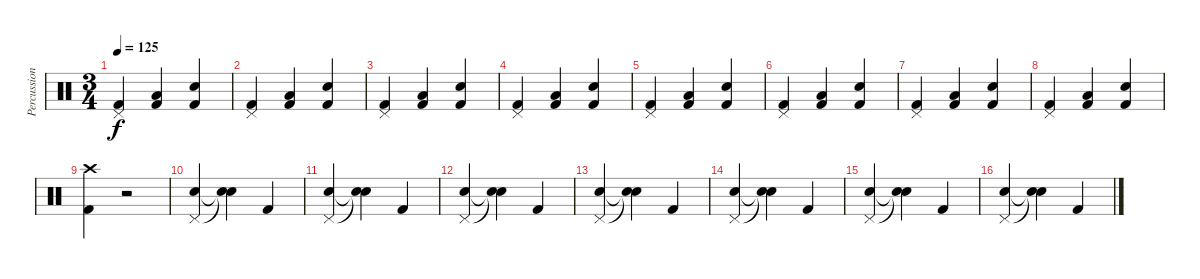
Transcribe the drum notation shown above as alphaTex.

\track ("Percussion" "Percussion") {instrument percussion}
\staff {score}
\articulation defaults
\ts (3 4)
\tempo 125
\clef neutral
\ks c
("Pedal Hi-Hat (hit)" "Kick (hit) 2").4{dy f} ("Low Tom (hit)" "Kick (hit) 2").4 ("Snare (hit) 2" "Kick (hit) 2").4 |
("Pedal Hi-Hat (hit)" "Kick (hit) 2").4 ("Low Tom (hit)" "Kick (hit) 2").4 ("Snare (hit) 2" "Kick (hit) 2").4 |
("Pedal Hi-Hat (hit)" "Kick (hit) 2").4 ("Low Tom (hit)" "Kick (hit) 2").4 ("Snare (hit) 2" "Kick (hit) 2").4 |
("Pedal Hi-Hat (hit)" "Kick (hit) 2").4 ("Low Tom (hit)" "Kick (hit) 2").4 ("Snare (hit) 2" "Kick (hit) 2").4 |
("Pedal Hi-Hat (hit)" "Kick (hit) 2").4 ("Low Tom (hit)" "Kick (hit) 2").4 ("Snare (hit) 2" "Kick (hit) 2").4 |
("Pedal Hi-Hat (hit)" "Kick (hit) 2").4 ("Low Tom (hit)" "Kick (hit) 2").4 ("Snare (hit) 2" "Kick (hit) 2").4 |
("Pedal Hi-Hat (hit)" "Kick (hit) 2").4 ("Low Tom (hit)" "Kick (hit) 2").4 ("Snare (hit) 2" "Kick (hit) 2").4 |
("Pedal Hi-Hat (hit)" "Kick (hit) 2").4 ("Low Tom (hit)" "Kick (hit) 2").4 ("Snare (hit) 2" "Kick (hit) 2").4 |
("Crash high (hit)" "Kick (hit) 2").4 r.2 |
("Pedal Hi-Hat (hit)" "Snare (hit) 2").4 ("Snare (hit)"{t} "Snare (hit)"{t}).4 "Kick (hit) 2".4 |
("Pedal Hi-Hat (hit)" "Snare (hit) 2").4 ("Snare (hit)"{t} "Snare (hit)"{t}).4 "Kick (hit) 2".4 |
("Pedal Hi-Hat (hit)" "Snare (hit) 2").4 ("Snare (hit)"{t} "Snare (hit)"{t}).4 "Kick (hit) 2".4 |
("Pedal Hi-Hat (hit)" "Snare (hit) 2").4 ("Snare (hit)"{t} "Snare (hit)"{t}).4 "Kick (hit) 2".4 |
("Pedal Hi-Hat (hit)" "Snare (hit) 2").4 ("Snare (hit)"{t} "Snare (hit)"{t}).4 "Kick (hit) 2".4 |
("Pedal Hi-Hat (hit)" "Snare (hit) 2").4 ("Snare (hit)"{t} "Snare (hit)"{t}).4 "Kick (hit) 2".4 |
("Pedal Hi-Hat (hit)" "Snare (hit) 2").4 ("Snare (hit)"{t} "Snare (hit)"{t}).4 "Kick (hit) 2".4
